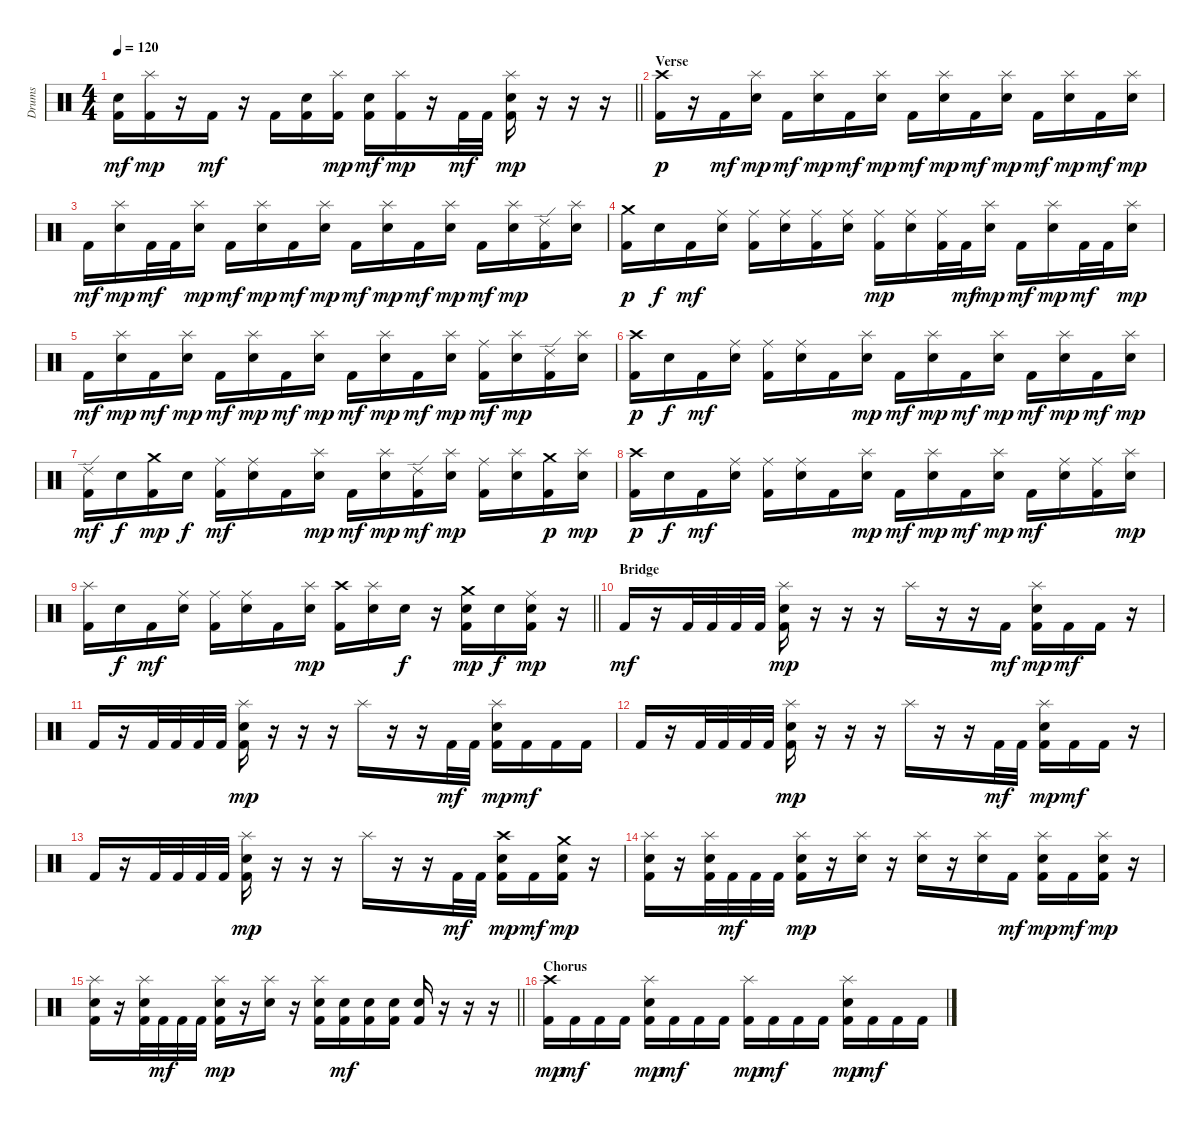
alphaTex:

\track ("Drums" "Drums") {instrument percussion}
\staff {score}
\articulation defaults
\ts (4 4)
\tempo 120
\clef neutral
\barLineRight lightlight
\ks c
("Kick (hit) 2" "Snare (hit) 2").16{dy mf} ("Kick (hit) 2" "Splash (hit)").16{dy mp} r.16 "Kick (hit) 2".16{dy mf} r.16 "Kick (hit) 2".16 ("Kick (hit) 2" "Snare (hit) 2").16 ("Kick (hit) 2" "Splash (hit)").16{dy mp} ("Kick (hit) 2" "Snare (hit) 2").16{dy mf} ("Kick (hit) 2" "Splash (hit)").16{dy mp} r.16 "Kick (hit) 2".32{dy mf} "Kick (hit) 2".32 ("Kick (hit) 2" "Splash (hit)" "Snare (hit) 2").16{dy mp} r.16 r.16 r.16 |
\section ("" "Verse")
("Kick (hit) 2" "Crash high (hit)").16{dy p} r.16 "Kick (hit) 2".16{dy mf} ("Splash (hit)" "Snare (hit) 2").16{dy mp} "Kick (hit) 2".16{dy mf} ("Splash (hit)" "Snare (hit) 2").16{dy mp} "Kick (hit) 2".16{dy mf} ("Splash (hit)" "Snare (hit) 2").16{dy mp} "Kick (hit) 2".16{dy mf} ("Splash (hit)" "Snare (hit) 2").16{dy mp} "Kick (hit) 2".16{dy mf} ("Splash (hit)" "Snare (hit) 2").16{dy mp} "Kick (hit) 2".16{dy mf} ("Splash (hit)" "Snare (hit) 2").16{dy mp} "Kick (hit) 2".16{dy mf} ("Splash (hit)" "Snare (hit) 2").16{dy mp} |
"Kick (hit) 2".16{dy mf} ("Splash (hit)" "Snare (hit) 2").16{dy mp} "Kick (hit) 2".32{dy mf} "Kick (hit) 2".32 ("Splash (hit)" "Snare (hit) 2").16{dy mp} "Kick (hit) 2".16{dy mf} ("Splash (hit)" "Snare (hit) 2").16{dy mp} "Kick (hit) 2".16{dy mf} ("Splash (hit)" "Snare (hit) 2").16{dy mp} "Kick (hit) 2".16{dy mf} ("Splash (hit)" "Snare (hit) 2").16{dy mp} "Kick (hit) 2".16{dy mf} ("Splash (hit)" "Snare (hit) 2").16{dy mp} "Kick (hit) 2".16{dy mf} ("Splash (hit)" "Snare (hit) 2").16{dy mp} ("Kick (hit) 2" "Ride (edge) 2").16 ("Splash (hit)" "Snare (hit) 2").16 |
("Kick (hit) 2" "Crash medium (hit)").16{dy p} "Snare (hit) 2".16{dy f} "Kick (hit) 2".16{dy mf} ("Ride (middle)" "Snare (hit) 2").16 ("Kick (hit) 2" "Ride (middle)").16 ("Ride (middle)" "Snare (hit) 2").16 ("Kick (hit) 2" "Ride (middle)").16 ("Ride (middle)" "Snare (hit) 2").16 ("Kick (hit) 2" "Ride (middle)").16{dy mp} ("Ride (middle)" "Snare (hit) 2").16 ("Kick (hit) 2" "Ride (middle)").32 "Kick (hit) 2".32{dy mf} ("Splash (hit)" "Snare (hit) 2").16{dy mp} "Kick (hit) 2".16{dy mf} ("Splash (hit)" "Snare (hit) 2").16{dy mp} "Kick (hit) 2".32{dy mf} "Kick (hit) 2".32 ("Splash (hit)" "Snare (hit) 2").16{dy mp} |
"Kick (hit) 2".16{dy mf} ("Splash (hit)" "Snare (hit) 2").16{dy mp} "Kick (hit) 2".16{dy mf} ("Splash (hit)" "Snare (hit) 2").16{dy mp} "Kick (hit) 2".16{dy mf} ("Splash (hit)" "Snare (hit) 2").16{dy mp} "Kick (hit) 2".16{dy mf} ("Splash (hit)" "Snare (hit) 2").16{dy mp} "Kick (hit) 2".16{dy mf} ("Splash (hit)" "Snare (hit) 2").16{dy mp} "Kick (hit) 2".16{dy mf} ("Splash (hit)" "Snare (hit) 2").16{dy mp} ("Kick (hit) 2" "Ride (middle)").16{dy mf} ("Splash (hit)" "Snare (hit) 2").16{dy mp} ("Kick (hit) 2" "Ride (edge) 2").16 ("Splash (hit)" "Snare (hit) 2").16 |
("Kick (hit) 2" "Crash high (hit)").16{dy p} "Snare (hit) 2".16{dy f} "Kick (hit) 2".16{dy mf} ("Ride (middle)" "Snare (hit) 2").16 ("Kick (hit) 2" "Ride (middle)").16 ("Ride (middle)" "Snare (hit) 2").16 "Kick (hit) 2".16 ("Splash (hit)" "Snare (hit) 2").16{dy mp} "Kick (hit) 2".16{dy mf} ("Splash (hit)" "Snare (hit) 2").16{dy mp} "Kick (hit) 2".16{dy mf} ("Splash (hit)" "Snare (hit) 2").16{dy mp} "Kick (hit) 2".16{dy mf} ("Splash (hit)" "Snare (hit) 2").16{dy mp} "Kick (hit) 2".16{dy mf} ("Splash (hit)" "Snare (hit) 2").16{dy mp} |
("Kick (hit) 2" "Ride (edge) 2").16{dy mf} "Snare (hit) 2".16{dy f} ("Kick (hit) 2" "Crash medium (hit)").16{dy mp} "Snare (hit) 2".16{dy f} ("Kick (hit) 2" "Ride (middle)").16{dy mf} ("Ride (middle)" "Snare (hit) 2").16 "Kick (hit) 2".16 ("Splash (hit)" "Snare (hit) 2").16{dy mp} "Kick (hit) 2".16{dy mf} ("Splash (hit)" "Snare (hit) 2").16{dy mp} ("Kick (hit) 2" "Ride (edge) 2").16{dy mf} ("Splash (hit)" "Snare (hit) 2").16{dy mp} ("Kick (hit) 2" "Ride (middle)").16 ("Splash (hit)" "Snare (hit) 2").16 ("Kick (hit) 2" "Crash medium (hit)").16{dy p} ("Splash (hit)" "Snare (hit) 2").16{dy mp} |
("Kick (hit) 2" "Crash high (hit)").16{dy p} "Snare (hit) 2".16{dy f} "Kick (hit) 2".16{dy mf} ("Ride (middle)" "Snare (hit) 2").16 ("Kick (hit) 2" "Ride (middle)").16 ("Ride (middle)" "Snare (hit) 2").16 "Kick (hit) 2".16 ("Splash (hit)" "Snare (hit) 2").16{dy mp} "Kick (hit) 2".16{dy mf} ("Splash (hit)" "Snare (hit) 2").16{dy mp} "Kick (hit) 2".16{dy mf} ("Splash (hit)" "Snare (hit) 2").16{dy mp} "Kick (hit) 2".16{dy mf} ("Ride (middle)" "Snare (hit) 2").16 ("Kick (hit) 2" "Ride (middle)").16 ("Splash (hit)" "Snare (hit) 2").16{dy mp} |
\barLineRight lightlight
("Kick (hit) 2" "Splash (hit)").16 "Snare (hit) 2".16{dy f} "Kick (hit) 2".16{dy mf} ("Ride (middle)" "Snare (hit) 2").16 ("Kick (hit) 2" "Ride (middle)").16 ("Ride (middle)" "Snare (hit) 2").16 "Kick (hit) 2".16 ("Splash (hit)" "Snare (hit) 2").16{dy mp} ("Kick (hit) 2" "Crash high (hit)").16 ("Splash (hit)" "Snare (hit) 2").16 "Snare (hit) 2".16{dy f} r.16 ("Kick (hit) 2" "Crash medium (hit)" "Snare (hit) 2").16{dy mp} "Snare (hit) 2".16{dy f} ("Kick (hit) 2" "Ride (middle)" "Snare (hit) 2").16{dy mp} r.16 |
\section ("" "Bridge")
"Kick (hit) 2".16{dy mf} r.16 "Kick (hit) 2".32 "Kick (hit) 2".32 "Kick (hit) 2".32 "Kick (hit) 2".32 ("Kick (hit) 2" "Splash (hit)" "Snare (hit) 2").16{dy mp} r.16 r.16 r.16 "Splash (hit)".16 r.16 r.16 "Kick (hit) 2".16{dy mf} ("Kick (hit) 2" "Splash (hit)" "Snare (hit) 2").16{dy mp} "Kick (hit) 2".16{dy mf} "Kick (hit) 2".16 r.16 |
"Kick (hit) 2".16 r.16 "Kick (hit) 2".32 "Kick (hit) 2".32 "Kick (hit) 2".32 "Kick (hit) 2".32 ("Kick (hit) 2" "Splash (hit)" "Snare (hit) 2").16{dy mp} r.16 r.16 r.16 "Splash (hit)".16 r.16 r.16 "Kick (hit) 2".32{dy mf} "Kick (hit) 2".32 ("Kick (hit) 2" "Splash (hit)" "Snare (hit) 2").16{dy mp} "Kick (hit) 2".16{dy mf} "Kick (hit) 2".16 "Kick (hit) 2".16 |
"Kick (hit) 2".16 r.16 "Kick (hit) 2".32 "Kick (hit) 2".32 "Kick (hit) 2".32 "Kick (hit) 2".32 ("Kick (hit) 2" "Splash (hit)" "Snare (hit) 2").16{dy mp} r.16 r.16 r.16 "Splash (hit)".16 r.16 r.16 "Kick (hit) 2".32{dy mf} "Kick (hit) 2".32 ("Kick (hit) 2" "Splash (hit)" "Snare (hit) 2").16{dy mp} "Kick (hit) 2".16{dy mf} "Kick (hit) 2".16 r.16 |
"Kick (hit) 2".16 r.16 "Kick (hit) 2".32 "Kick (hit) 2".32 "Kick (hit) 2".32 "Kick (hit) 2".32 ("Kick (hit) 2" "Splash (hit)" "Snare (hit) 2").16{dy mp} r.16 r.16 r.16 "Splash (hit)".16 r.16 r.16 "Kick (hit) 2".32{dy mf} "Kick (hit) 2".32 ("Kick (hit) 2" "Crash high (hit)" "Snare (hit) 2").16{dy mp} "Kick (hit) 2".16{dy mf} ("Kick (hit) 2" "Crash medium (hit)" "Snare (hit) 2").16{dy mp} r.16 |
("Kick (hit) 2" "Splash (hit)" "Snare (hit) 2").16 r.16 ("Kick (hit) 2" "Splash (hit)" "Snare (hit) 2").32 "Kick (hit) 2".32{dy mf} "Kick (hit) 2".32 "Kick (hit) 2".32 ("Kick (hit) 2" "Splash (hit)" "Snare (hit) 2").16{dy mp} r.16 ("Splash (hit)" "Snare (hit) 2").16 r.16 ("Splash (hit)" "Snare (hit) 2").16 r.16 ("Splash (hit)" "Snare (hit) 2").16 "Kick (hit) 2".16{dy mf} ("Kick (hit) 2" "Splash (hit)" "Snare (hit) 2").16{dy mp} "Kick (hit) 2".16{dy mf} ("Kick (hit) 2" "Splash (hit)" "Snare (hit) 2").16{dy mp} r.16 |
\barLineRight lightlight
("Kick (hit) 2" "Splash (hit)" "Snare (hit) 2").16 r.16 ("Kick (hit) 2" "Splash (hit)" "Snare (hit) 2").32 "Kick (hit) 2".32{dy mf} "Kick (hit) 2".32 "Kick (hit) 2".32 ("Kick (hit) 2" "Splash (hit)" "Snare (hit) 2").16{dy mp} r.16 ("Splash (hit)" "Snare (hit) 2").16 r.16 ("Kick (hit) 2" "Splash (hit)" "Snare (hit) 2").16 ("Kick (hit) 2" "Snare (hit) 2").16{dy mf} ("Kick (hit) 2" "Snare (hit) 2").16 ("Kick (hit) 2" "Snare (hit) 2").16 ("Kick (hit) 2" "Snare (hit) 2").16 r.16 r.16 r.16 |
\section ("" "Chorus")
("Kick (hit) 2" "Crash high (hit)").16{dy mp} "Kick (hit) 2".16{dy mf} "Kick (hit) 2".16 "Kick (hit) 2".16 ("Kick (hit) 2" "Splash (hit)" "Snare (hit) 2").16{dy mp} "Kick (hit) 2".16{dy mf} "Kick (hit) 2".16 "Kick (hit) 2".16 ("Kick (hit) 2" "Splash (hit)").16{dy mp} "Kick (hit) 2".16{dy mf} "Kick (hit) 2".16 "Kick (hit) 2".16 ("Kick (hit) 2" "Splash (hit)" "Snare (hit) 2").16{dy mp} "Kick (hit) 2".16{dy mf} "Kick (hit) 2".16 "Kick (hit) 2".16
